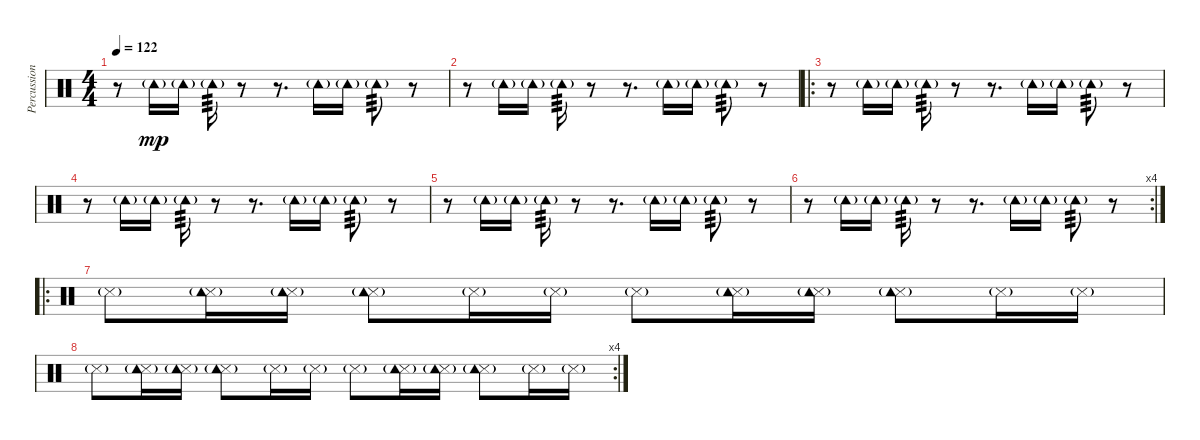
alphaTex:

\track ("Percussion" "Percussion") {instrument percussion}
\staff {score}
\articulation defaults
\ts (4 4)
\tempo 122
\clef neutral
\ks c
r.8{dy mp} "Tambourine (hit)"{g}.16 "Tambourine (hit)"{g}.16 "Tambourine (hit)"{g}.16{tp 3} r.8 r.8{d} "Tambourine (hit)"{g}.16 "Tambourine (hit)"{g}.16 "Tambourine (hit)"{g}.8{tp 3} r.8 |
r.8 "Tambourine (hit)"{g}.16 "Tambourine (hit)"{g}.16 "Tambourine (hit)"{g}.16{tp 3} r.8 r.8{d} "Tambourine (hit)"{g}.16 "Tambourine (hit)"{g}.16 "Tambourine (hit)"{g}.8{tp 3} r.8 |
\ro
r.8 "Tambourine (hit)"{g}.16 "Tambourine (hit)"{g}.16 "Tambourine (hit)"{g}.16{tp 3} r.8 r.8{d} "Tambourine (hit)"{g}.16 "Tambourine (hit)"{g}.16 "Tambourine (hit)"{g}.8{tp 3} r.8 |
r.8 "Tambourine (hit)"{g}.16 "Tambourine (hit)"{g}.16 "Tambourine (hit)"{g}.16{tp 3} r.8 r.8{d} "Tambourine (hit)"{g}.16 "Tambourine (hit)"{g}.16 "Tambourine (hit)"{g}.8{tp 3} r.8 |
r.8 "Tambourine (hit)"{g}.16 "Tambourine (hit)"{g}.16 "Tambourine (hit)"{g}.16{tp 3} r.8 r.8{d} "Tambourine (hit)"{g}.16 "Tambourine (hit)"{g}.16 "Tambourine (hit)"{g}.8{tp 3} r.8 |
\rc 4
r.8 "Tambourine (hit)"{g}.16 "Tambourine (hit)"{g}.16 "Tambourine (hit)"{g}.16{tp 3} r.8 r.8{d} "Tambourine (hit)"{g}.16 "Tambourine (hit)"{g}.16 "Tambourine (hit)"{g}.8{tp 3} r.8 |
\ro "Snare (side stick) 3"{g}.8
("Snare (side stick) 3"{g} "Tambourine (hit)"{g}).16 ("Snare (side stick) 3"{g} "Tambourine (hit)"{g}).16 ("Snare (side stick) 3"{g} "Tambourine (hit)"{g}).8 "Snare (side stick) 3"{g}.16 "Snare (side stick) 3"{g}.16 "Snare (side stick) 3"{g}.8 ("Snare (side stick) 3"{g} "Tambourine (hit)"{g}).16 ("Snare (side stick) 3"{g} "Tambourine (hit)"{g}).16 ("Snare (side stick) 3"{g} "Tambourine (hit)"{g}).8 "Snare (side stick) 3"{g}.16 "Snare (side stick) 3"{g}.16 |
\rc 4 "Snare (side stick) 3"{g}.8
("Snare (side stick) 3"{g} "Tambourine (hit)"{g}).16 ("Snare (side stick) 3"{g} "Tambourine (hit)"{g}).16 ("Snare (side stick) 3"{g} "Tambourine (hit)"{g}).8 "Snare (side stick) 3"{g}.16 "Snare (side stick) 3"{g}.16 "Snare (side stick) 3"{g}.8 ("Snare (side stick) 3"{g} "Tambourine (hit)"{g}).16 ("Snare (side stick) 3"{g} "Tambourine (hit)"{g}).16 ("Snare (side stick) 3"{g} "Tambourine (hit)"{g}).8 "Snare (side stick) 3"{g}.16 "Snare (side stick) 3"{g}.16
